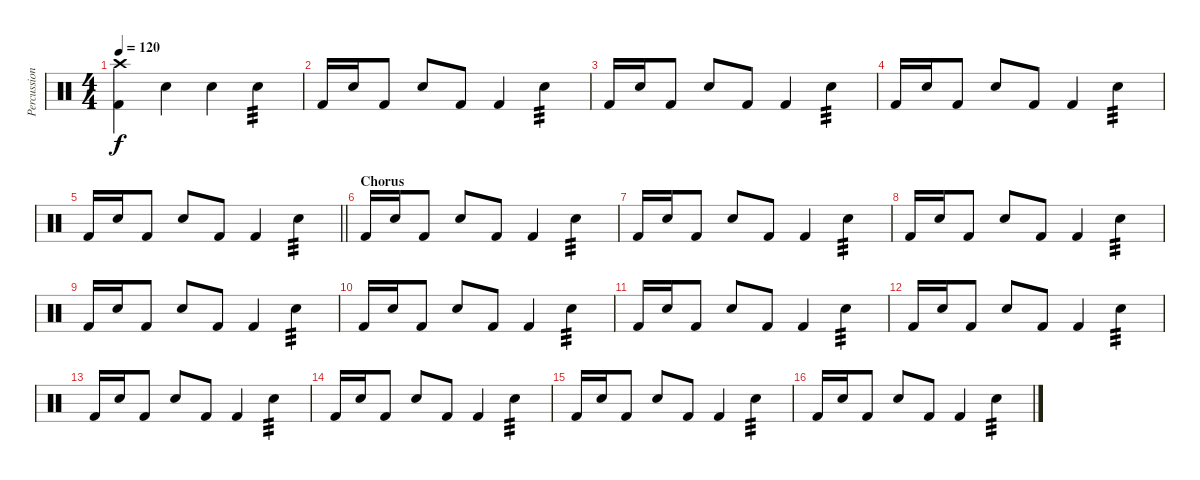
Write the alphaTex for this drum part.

\track ("Percussion" "Percussion") {instrument percussion}
\staff {score}
\articulation defaults
\ts (4 4)
\tempo 120
\clef neutral
\ks c
("Crash high (hit)" "Kick (hit) 2").4{dy f} "Electric Snare (hit)".4 "Electric Snare (hit)".4 "Electric Snare (hit)".4{tp 3} |
"Kick (hit) 2".16 "Electric Snare (hit)".16 "Kick (hit) 2".8 "Electric Snare (hit)".8 "Kick (hit) 2".8 "Kick (hit) 2".4 "Electric Snare (hit)".4{tp 3} |
"Kick (hit) 2".16 "Electric Snare (hit)".16 "Kick (hit) 2".8 "Electric Snare (hit)".8 "Kick (hit) 2".8 "Kick (hit) 2".4 "Electric Snare (hit)".4{tp 3} |
"Kick (hit) 2".16 "Electric Snare (hit)".16 "Kick (hit) 2".8 "Electric Snare (hit)".8 "Kick (hit) 2".8 "Kick (hit) 2".4 "Electric Snare (hit)".4{tp 3} |
\barLineRight lightlight "Kick (hit) 2".16 "Electric Snare (hit)".16 "Kick (hit) 2".8 "Electric Snare (hit)".8 "Kick (hit) 2".8 "Kick (hit) 2".4 "Electric Snare (hit)".4{tp 3}
|
\section ("" "Chorus")
"Kick (hit) 2".16 "Electric Snare (hit)".16 "Kick (hit) 2".8 "Electric Snare (hit)".8 "Kick (hit) 2".8 "Kick (hit) 2".4 "Electric Snare (hit)".4{tp 3} |
"Kick (hit) 2".16 "Electric Snare (hit)".16 "Kick (hit) 2".8 "Electric Snare (hit)".8 "Kick (hit) 2".8 "Kick (hit) 2".4 "Electric Snare (hit)".4{tp 3} |
"Kick (hit) 2".16 "Electric Snare (hit)".16 "Kick (hit) 2".8 "Electric Snare (hit)".8 "Kick (hit) 2".8 "Kick (hit) 2".4 "Electric Snare (hit)".4{tp 3} |
"Kick (hit) 2".16 "Electric Snare (hit)".16 "Kick (hit) 2".8 "Electric Snare (hit)".8 "Kick (hit) 2".8 "Kick (hit) 2".4 "Electric Snare (hit)".4{tp 3} |
"Kick (hit) 2".16 "Electric Snare (hit)".16 "Kick (hit) 2".8 "Electric Snare (hit)".8 "Kick (hit) 2".8 "Kick (hit) 2".4 "Electric Snare (hit)".4{tp 3} |
"Kick (hit) 2".16 "Electric Snare (hit)".16 "Kick (hit) 2".8 "Electric Snare (hit)".8 "Kick (hit) 2".8 "Kick (hit) 2".4 "Electric Snare (hit)".4{tp 3} |
"Kick (hit) 2".16 "Electric Snare (hit)".16 "Kick (hit) 2".8 "Electric Snare (hit)".8 "Kick (hit) 2".8 "Kick (hit) 2".4 "Electric Snare (hit)".4{tp 3} |
"Kick (hit) 2".16 "Electric Snare (hit)".16 "Kick (hit) 2".8 "Electric Snare (hit)".8 "Kick (hit) 2".8 "Kick (hit) 2".4 "Electric Snare (hit)".4{tp 3} |
"Kick (hit) 2".16 "Electric Snare (hit)".16 "Kick (hit) 2".8 "Electric Snare (hit)".8 "Kick (hit) 2".8 "Kick (hit) 2".4 "Electric Snare (hit)".4{tp 3} |
"Kick (hit) 2".16 "Electric Snare (hit)".16 "Kick (hit) 2".8 "Electric Snare (hit)".8 "Kick (hit) 2".8 "Kick (hit) 2".4 "Electric Snare (hit)".4{tp 3} |
"Kick (hit) 2".16 "Electric Snare (hit)".16 "Kick (hit) 2".8 "Electric Snare (hit)".8 "Kick (hit) 2".8 "Kick (hit) 2".4 "Electric Snare (hit)".4{tp 3}
